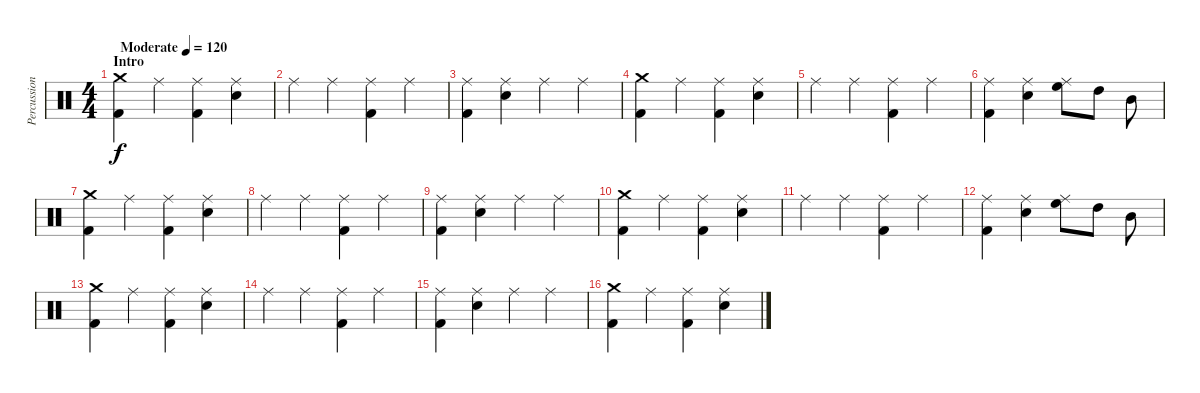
\track ("Percussion" "Percussion") {instrument percussion}
\staff {score}
\articulation defaults
\ts (4 4)
\section ("" "Intro")
\tempo (120 "Moderate")
\clef neutral
\ks c
("Crash medium (hit)" "Kick (hit) 2").4{dy f} "Ride (middle)".4 ("Ride (middle)" "Kick (hit) 2").4 ("Ride (middle)" "Electric Snare (hit)").4 |
"Ride (middle)".4 "Ride (middle)".4 ("Ride (middle)" "Kick (hit) 2").4 "Ride (middle)".4 |
("Ride (middle)" "Kick (hit) 2").4 ("Ride (middle)" "Electric Snare (hit)").4 "Ride (middle)".4 "Ride (middle)".4 |
("Crash medium (hit)" "Kick (hit) 2").4 "Ride (middle)".4 ("Ride (middle)" "Kick (hit) 2").4 ("Ride (middle)" "Electric Snare (hit)").4 |
"Ride (middle)".4 "Ride (middle)".4 ("Ride (middle)" "Kick (hit) 2").4 "Ride (middle)".4 |
("Ride (middle)" "Kick (hit) 2").4 ("Ride (middle)" "Electric Snare (hit)").4 ("Ride (middle)" "High Floor Tom (hit)").8 "High Tom (hit)".8 "Mid Tom (hit)".8 |
("Crash medium (hit)" "Kick (hit) 2").4 "Ride (middle)".4 ("Ride (middle)" "Kick (hit) 2").4 ("Ride (middle)" "Electric Snare (hit)").4 |
"Ride (middle)".4 "Ride (middle)".4 ("Ride (middle)" "Kick (hit) 2").4 "Ride (middle)".4 |
("Ride (middle)" "Kick (hit) 2").4 ("Ride (middle)" "Electric Snare (hit)").4 "Ride (middle)".4 "Ride (middle)".4 |
("Crash medium (hit)" "Kick (hit) 2").4 "Ride (middle)".4 ("Ride (middle)" "Kick (hit) 2").4 ("Ride (middle)" "Electric Snare (hit)").4 |
"Ride (middle)".4 "Ride (middle)".4 ("Ride (middle)" "Kick (hit) 2").4 "Ride (middle)".4 |
("Ride (middle)" "Kick (hit) 2").4 ("Ride (middle)" "Electric Snare (hit)").4 ("Ride (middle)" "High Floor Tom (hit)").8 "High Tom (hit)".8 "Mid Tom (hit)".8 |
("Crash medium (hit)" "Kick (hit) 2").4 "Ride (middle)".4 ("Ride (middle)" "Kick (hit) 2").4 ("Ride (middle)" "Electric Snare (hit)").4 |
"Ride (middle)".4 "Ride (middle)".4 ("Ride (middle)" "Kick (hit) 2").4 "Ride (middle)".4 |
("Ride (middle)" "Kick (hit) 2").4 ("Ride (middle)" "Electric Snare (hit)").4 "Ride (middle)".4 "Ride (middle)".4 |
("Crash medium (hit)" "Kick (hit) 2").4 "Ride (middle)".4 ("Ride (middle)" "Kick (hit) 2").4 ("Ride (middle)" "Electric Snare (hit)").4
